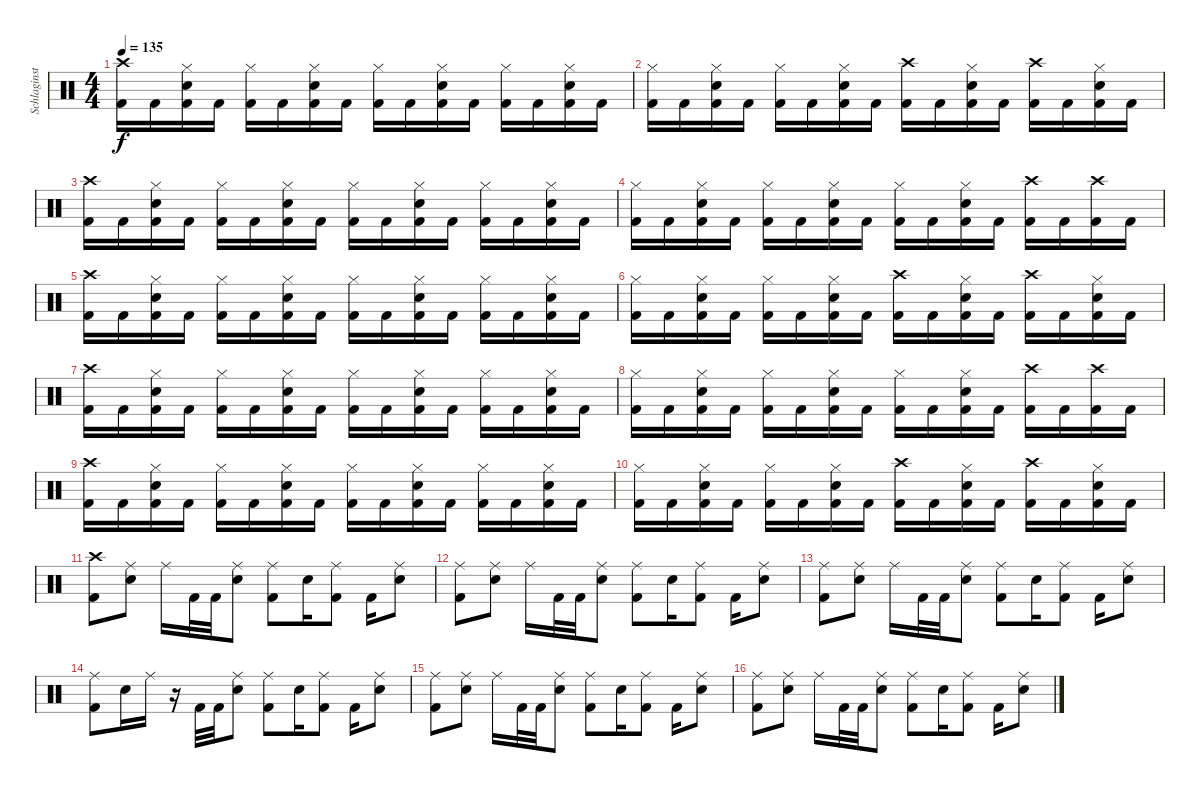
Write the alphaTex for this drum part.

\track ("Schlaginstrumente - Auswahl" "Schlaginst") {instrument percussion}
\staff {score}
\articulation defaults
\ts (4 4)
\tempo 135
\clef neutral
\ks c
("Crash high (hit)" "Kick (hit) 2").16{dy f} "Kick (hit) 2".16 ("Hi-Hat (closed)" "Snare (hit) 2" "Kick (hit) 2").16 "Kick (hit) 2".16 ("Hi-Hat (closed)" "Kick (hit) 2").16 "Kick (hit) 2".16 ("Hi-Hat (closed)" "Snare (hit) 2" "Kick (hit) 2").16 "Kick (hit) 2".16 ("Hi-Hat (closed)" "Kick (hit) 2").16 "Kick (hit) 2".16 ("Hi-Hat (closed)" "Snare (hit) 2" "Kick (hit) 2").16 "Kick (hit) 2".16 ("Hi-Hat (closed)" "Kick (hit) 2").16 "Kick (hit) 2".16 ("Hi-Hat (closed)" "Snare (hit) 2" "Kick (hit) 2").16 "Kick (hit) 2".16 |
("Hi-Hat (closed)" "Kick (hit) 2").16 "Kick (hit) 2".16 ("Hi-Hat (closed)" "Snare (hit) 2" "Kick (hit) 2").16 "Kick (hit) 2".16 ("Hi-Hat (closed)" "Kick (hit) 2").16 "Kick (hit) 2".16 ("Hi-Hat (closed)" "Snare (hit) 2" "Kick (hit) 2").16 "Kick (hit) 2".16 ("Crash high (hit)" "Kick (hit) 2").16 "Kick (hit) 2".16 ("Hi-Hat (closed)" "Snare (hit) 2" "Kick (hit) 2").16 "Kick (hit) 2".16 ("Crash high (hit)" "Kick (hit) 2").16 "Kick (hit) 2".16 ("Hi-Hat (closed)" "Snare (hit) 2" "Kick (hit) 2").16 "Kick (hit) 2".16 |
("Crash high (hit)" "Kick (hit) 2").16 "Kick (hit) 2".16 ("Hi-Hat (closed)" "Snare (hit) 2" "Kick (hit) 2").16 "Kick (hit) 2".16 ("Hi-Hat (closed)" "Kick (hit) 2").16 "Kick (hit) 2".16 ("Hi-Hat (closed)" "Snare (hit) 2" "Kick (hit) 2").16 "Kick (hit) 2".16 ("Hi-Hat (closed)" "Kick (hit) 2").16 "Kick (hit) 2".16 ("Hi-Hat (closed)" "Snare (hit) 2" "Kick (hit) 2").16 "Kick (hit) 2".16 ("Hi-Hat (closed)" "Kick (hit) 2").16 "Kick (hit) 2".16 ("Hi-Hat (closed)" "Snare (hit) 2" "Kick (hit) 2").16 "Kick (hit) 2".16 |
("Hi-Hat (closed)" "Kick (hit) 2").16 "Kick (hit) 2".16 ("Hi-Hat (closed)" "Snare (hit) 2" "Kick (hit) 2").16 "Kick (hit) 2".16 ("Hi-Hat (closed)" "Kick (hit) 2").16 "Kick (hit) 2".16 ("Hi-Hat (closed)" "Snare (hit) 2" "Kick (hit) 2").16 "Kick (hit) 2".16 ("Hi-Hat (closed)" "Kick (hit) 2").16 "Kick (hit) 2".16 ("Hi-Hat (closed)" "Snare (hit) 2" "Kick (hit) 2").16 "Kick (hit) 2".16 ("Crash high (hit)" "Kick (hit) 2").16 "Kick (hit) 2".16 ("Crash high (hit)" "Kick (hit) 2").16 "Kick (hit) 2".16 |
("Crash high (hit)" "Kick (hit) 2").16 "Kick (hit) 2".16 ("Hi-Hat (closed)" "Snare (hit) 2" "Kick (hit) 2").16 "Kick (hit) 2".16 ("Hi-Hat (closed)" "Kick (hit) 2").16 "Kick (hit) 2".16 ("Hi-Hat (closed)" "Snare (hit) 2" "Kick (hit) 2").16 "Kick (hit) 2".16 ("Hi-Hat (closed)" "Kick (hit) 2").16 "Kick (hit) 2".16 ("Hi-Hat (closed)" "Snare (hit) 2" "Kick (hit) 2").16 "Kick (hit) 2".16 ("Hi-Hat (closed)" "Kick (hit) 2").16 "Kick (hit) 2".16 ("Hi-Hat (closed)" "Snare (hit) 2" "Kick (hit) 2").16 "Kick (hit) 2".16 |
("Hi-Hat (closed)" "Kick (hit) 2").16 "Kick (hit) 2".16 ("Hi-Hat (closed)" "Snare (hit) 2" "Kick (hit) 2").16 "Kick (hit) 2".16 ("Hi-Hat (closed)" "Kick (hit) 2").16 "Kick (hit) 2".16 ("Hi-Hat (closed)" "Snare (hit) 2" "Kick (hit) 2").16 "Kick (hit) 2".16 ("Crash high (hit)" "Kick (hit) 2").16 "Kick (hit) 2".16 ("Hi-Hat (closed)" "Snare (hit) 2" "Kick (hit) 2").16 "Kick (hit) 2".16 ("Crash high (hit)" "Kick (hit) 2").16 "Kick (hit) 2".16 ("Hi-Hat (closed)" "Snare (hit) 2" "Kick (hit) 2").16 "Kick (hit) 2".16 |
("Crash high (hit)" "Kick (hit) 2").16 "Kick (hit) 2".16 ("Hi-Hat (closed)" "Snare (hit) 2" "Kick (hit) 2").16 "Kick (hit) 2".16 ("Hi-Hat (closed)" "Kick (hit) 2").16 "Kick (hit) 2".16 ("Hi-Hat (closed)" "Snare (hit) 2" "Kick (hit) 2").16 "Kick (hit) 2".16 ("Hi-Hat (closed)" "Kick (hit) 2").16 "Kick (hit) 2".16 ("Hi-Hat (closed)" "Snare (hit) 2" "Kick (hit) 2").16 "Kick (hit) 2".16 ("Hi-Hat (closed)" "Kick (hit) 2").16 "Kick (hit) 2".16 ("Hi-Hat (closed)" "Snare (hit) 2" "Kick (hit) 2").16 "Kick (hit) 2".16 |
("Hi-Hat (closed)" "Kick (hit) 2").16 "Kick (hit) 2".16 ("Hi-Hat (closed)" "Snare (hit) 2" "Kick (hit) 2").16 "Kick (hit) 2".16 ("Hi-Hat (closed)" "Kick (hit) 2").16 "Kick (hit) 2".16 ("Hi-Hat (closed)" "Snare (hit) 2" "Kick (hit) 2").16 "Kick (hit) 2".16 ("Hi-Hat (closed)" "Kick (hit) 2").16 "Kick (hit) 2".16 ("Hi-Hat (closed)" "Snare (hit) 2" "Kick (hit) 2").16 "Kick (hit) 2".16 ("Crash high (hit)" "Kick (hit) 2").16 "Kick (hit) 2".16 ("Crash high (hit)" "Kick (hit) 2").16 "Kick (hit) 2".16 |
("Crash high (hit)" "Kick (hit) 2").16 "Kick (hit) 2".16 ("Hi-Hat (closed)" "Snare (hit) 2" "Kick (hit) 2").16 "Kick (hit) 2".16 ("Hi-Hat (closed)" "Kick (hit) 2").16 "Kick (hit) 2".16 ("Hi-Hat (closed)" "Snare (hit) 2" "Kick (hit) 2").16 "Kick (hit) 2".16 ("Hi-Hat (closed)" "Kick (hit) 2").16 "Kick (hit) 2".16 ("Hi-Hat (closed)" "Snare (hit) 2" "Kick (hit) 2").16 "Kick (hit) 2".16 ("Hi-Hat (closed)" "Kick (hit) 2").16 "Kick (hit) 2".16 ("Hi-Hat (closed)" "Snare (hit) 2" "Kick (hit) 2").16 "Kick (hit) 2".16 |
("Hi-Hat (closed)" "Kick (hit) 2").16 "Kick (hit) 2".16 ("Hi-Hat (closed)" "Snare (hit) 2" "Kick (hit) 2").16 "Kick (hit) 2".16 ("Hi-Hat (closed)" "Kick (hit) 2").16 "Kick (hit) 2".16 ("Hi-Hat (closed)" "Snare (hit) 2" "Kick (hit) 2").16 "Kick (hit) 2".16 ("Crash high (hit)" "Kick (hit) 2").16 "Kick (hit) 2".16 ("Hi-Hat (closed)" "Snare (hit) 2" "Kick (hit) 2").16 "Kick (hit) 2".16 ("Crash high (hit)" "Kick (hit) 2").16 "Kick (hit) 2".16 ("Hi-Hat (closed)" "Snare (hit) 2" "Kick (hit) 2").16 "Kick (hit) 2".16 |
("Crash high (hit)" "Kick (hit) 2").8 ("Ride (middle)" "Snare (hit) 2").8 "Ride (middle)".16 "Kick (hit) 2".32 "Kick (hit) 2".32 ("Ride (middle)" "Snare (hit) 2").8 ("Ride (middle)" "Kick (hit) 2").8 "Snare (hit) 2".16 ("Ride (middle)" "Kick (hit) 2").8 "Kick (hit) 2".16 ("Ride (middle)" "Snare (hit) 2").8 |
("Ride (middle)" "Kick (hit) 2").8 ("Ride (middle)" "Snare (hit) 2").8 "Ride (middle)".16 "Kick (hit) 2".32 "Kick (hit) 2".32 ("Ride (middle)" "Snare (hit) 2").8 ("Ride (middle)" "Kick (hit) 2").8 "Snare (hit) 2".16 ("Ride (middle)" "Kick (hit) 2").8 "Kick (hit) 2".16 ("Ride (middle)" "Snare (hit) 2").8 |
("Ride (middle)" "Kick (hit) 2").8 ("Ride (middle)" "Snare (hit) 2").8 "Ride (middle)".16 "Kick (hit) 2".32 "Kick (hit) 2".32 ("Ride (middle)" "Snare (hit) 2").8 ("Ride (middle)" "Kick (hit) 2").8 "Snare (hit) 2".16 ("Ride (middle)" "Kick (hit) 2").8 "Kick (hit) 2".16 ("Ride (middle)" "Snare (hit) 2").8 |
("Ride (middle)" "Kick (hit) 2").8 "Snare (hit) 2".16 "Ride (middle)".16 r.16 "Kick (hit) 2".32 "Kick (hit) 2".32 ("Ride (middle)" "Snare (hit) 2").8 ("Ride (middle)" "Kick (hit) 2").8 "Snare (hit) 2".16 ("Ride (middle)" "Kick (hit) 2").8 "Kick (hit) 2".16 ("Ride (middle)" "Snare (hit) 2").8 |
("Ride (middle)" "Kick (hit) 2").8 ("Ride (middle)" "Snare (hit) 2").8 "Ride (middle)".16 "Kick (hit) 2".32 "Kick (hit) 2".32 ("Ride (middle)" "Snare (hit) 2").8 ("Ride (middle)" "Kick (hit) 2").8 "Snare (hit) 2".16 ("Ride (middle)" "Kick (hit) 2").8 "Kick (hit) 2".16 ("Ride (middle)" "Snare (hit) 2").8 |
("Ride (middle)" "Kick (hit) 2").8 ("Ride (middle)" "Snare (hit) 2").8 "Ride (middle)".16 "Kick (hit) 2".32 "Kick (hit) 2".32 ("Ride (middle)" "Snare (hit) 2").8 ("Ride (middle)" "Kick (hit) 2").8 "Snare (hit) 2".16 ("Ride (middle)" "Kick (hit) 2").8 "Kick (hit) 2".16 ("Ride (middle)" "Snare (hit) 2").8
